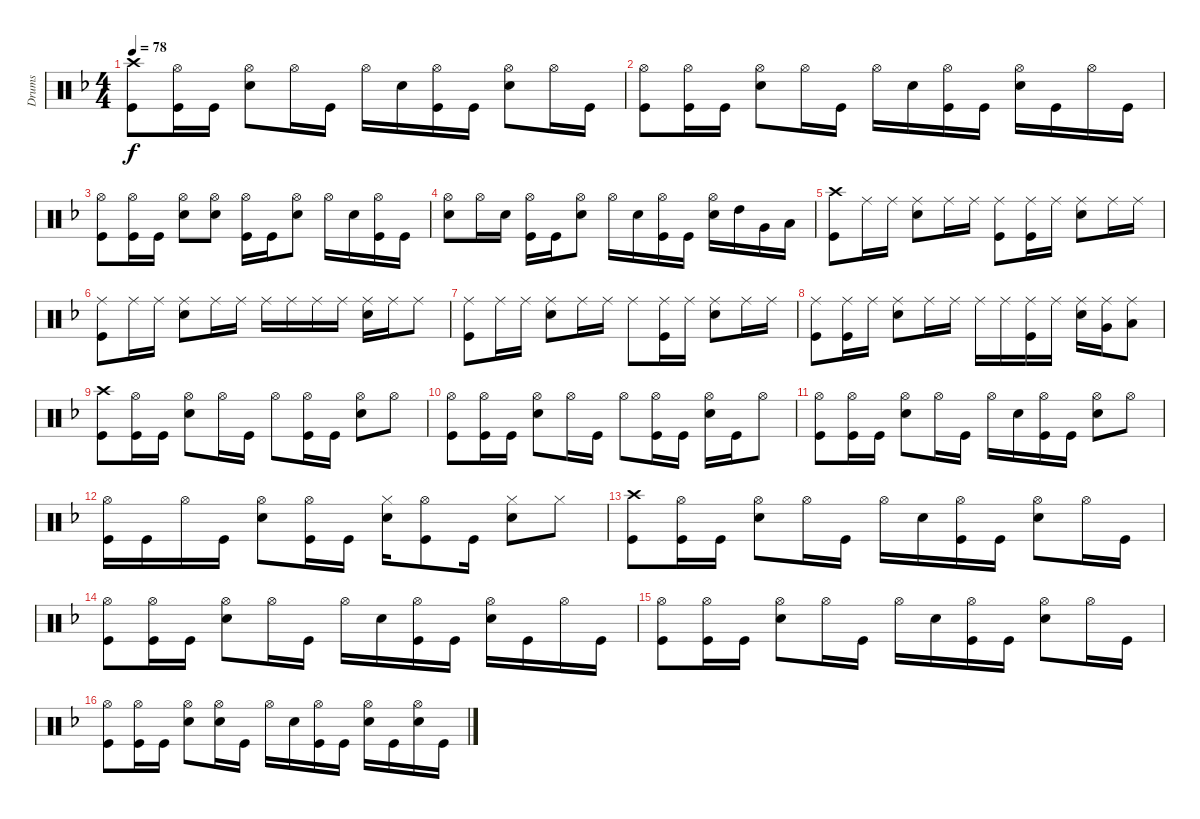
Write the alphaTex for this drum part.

\track ("Drums" "Drums") {instrument percussion}
\staff {score}
\articulation defaults
\ts (4 4)
\tempo 78
\clef neutral
\ks dminor
("Crash high (hit)" "Kick (hit)").8{dy f} ("Hi-Hat (open)" "Kick (hit)").16 "Kick (hit)".16 ("Hi-Hat (open)" "Snare (hit) 2").8 "Hi-Hat (open)".16 "Kick (hit)".16 "Hi-Hat (open)".16 "Snare (hit) 2".16 ("Hi-Hat (open)" "Kick (hit)").16 "Kick (hit)".16 ("Hi-Hat (open)" "Snare (hit) 2").8 "Hi-Hat (open)".16 "Kick (hit)".16 |
("Hi-Hat (open)" "Kick (hit)").8 ("Hi-Hat (open)" "Kick (hit)").16 "Kick (hit)".16 ("Hi-Hat (open)" "Snare (hit) 2").8 "Hi-Hat (open)".16 "Kick (hit)".16 "Hi-Hat (open)".16 "Snare (hit) 2".16 ("Hi-Hat (open)" "Kick (hit)").16 "Kick (hit)".16 ("Hi-Hat (open)" "Snare (hit) 2").16 "Kick (hit)".16 "Hi-Hat (open)".16 "Kick (hit)".16 |
("Hi-Hat (open)" "Kick (hit)").8 ("Hi-Hat (open)" "Kick (hit)").16 "Kick (hit)".16 ("Hi-Hat (open)" "Snare (hit) 2").8 ("Hi-Hat (open)" "Snare (hit) 2").8 ("Hi-Hat (open)" "Kick (hit)").16 "Kick (hit)".16 ("Hi-Hat (open)" "Snare (hit) 2").8 "Hi-Hat (open)".16 "Snare (hit) 2".16 ("Hi-Hat (open)" "Kick (hit)").16 "Kick (hit)".16 |
("Hi-Hat (open)" "Snare (hit) 2").8 "Hi-Hat (open)".16 "Snare (hit) 2".16 ("Hi-Hat (open)" "Kick (hit)").16 "Kick (hit)".16 ("Hi-Hat (open)" "Snare (hit) 2").8 "Hi-Hat (open)".16 "Snare (hit) 2".16 ("Hi-Hat (open)" "Kick (hit)").16 "Kick (hit)".16 ("Hi-Hat (open)" "Snare (hit) 2").16 "High Tom (hit)".16 "Very Low Tom (hit)".16 "Low Floor Tom (hit)".16 |
("Crash high (hit)" "Kick (hit)").8 "Ride (middle)".16 "Ride (middle)".16 ("Ride (middle)" "Snare (hit) 2").8 "Ride (middle)".16 "Ride (middle)".16 ("Ride (middle)" "Kick (hit)").8 ("Ride (middle)" "Kick (hit)").16 "Ride (middle)".16 ("Ride (middle)" "Snare (hit) 2").8 "Ride (middle)".16 "Ride (middle)".16 |
("Ride (middle)" "Kick (hit)").8 "Ride (middle)".16 "Ride (middle)".16 ("Ride (middle)" "Snare (hit) 2").8 "Ride (middle)".16 "Ride (middle)".16 "Ride (middle)".16 "Ride (middle)".16 "Ride (middle)".16 "Ride (middle)".16 ("Ride (middle)" "Snare (hit) 2").16 "Ride (middle)".16 "Ride (middle)".8 |
("Ride (middle)" "Kick (hit)").8 "Ride (middle)".16 "Ride (middle)".16 ("Ride (middle)" "Snare (hit) 2").8 "Ride (middle)".16 "Ride (middle)".16 "Ride (middle)".8 ("Ride (middle)" "Kick (hit)").16 "Ride (middle)".16 ("Ride (middle)" "Snare (hit) 2").8 "Ride (middle)".16 "Ride (middle)".16 |
("Ride (middle)" "Kick (hit)").8 ("Ride (middle)" "Kick (hit)").16 "Ride (middle)".16 ("Ride (middle)" "Snare (hit) 2").8 "Ride (middle)".16 "Ride (middle)".16 "Ride (middle)".16 "Ride (middle)".16 ("Ride (middle)" "Kick (hit)").16 "Ride (middle)".16 ("Ride (middle)" "Snare (hit) 2").16 ("Ride (middle)" "Very Low Tom (hit)").16 ("Ride (middle)" "Low Floor Tom (hit)").8 |
("Crash high (hit)" "Kick (hit)").8 ("Hi-Hat (open)" "Kick (hit)").16 "Kick (hit)".16 ("Hi-Hat (open)" "Snare (hit) 2").8 "Hi-Hat (open)".16 "Kick (hit)".16 "Hi-Hat (open)".8 ("Hi-Hat (open)" "Kick (hit)").16 "Kick (hit)".16 ("Hi-Hat (open)" "Snare (hit) 2").8 "Hi-Hat (open)".8 |
("Hi-Hat (open)" "Kick (hit)").8 ("Hi-Hat (open)" "Kick (hit)").16 "Kick (hit)".16 ("Hi-Hat (open)" "Snare (hit) 2").8 "Hi-Hat (open)".16 "Kick (hit)".16 "Hi-Hat (open)".8 ("Hi-Hat (open)" "Kick (hit)").16 "Kick (hit)".16 ("Hi-Hat (open)" "Snare (hit) 2").16 "Kick (hit)".16 "Hi-Hat (open)".8 |
("Hi-Hat (open)" "Kick (hit)").8 ("Hi-Hat (open)" "Kick (hit)").16 "Kick (hit)".16 ("Hi-Hat (open)" "Snare (hit) 2").8 "Hi-Hat (open)".16 "Kick (hit)".16 "Hi-Hat (open)".16 "Snare (hit) 2".16 ("Hi-Hat (open)" "Kick (hit)").16 "Kick (hit)".16 ("Hi-Hat (open)" "Snare (hit) 2").8 "Hi-Hat (open)".8 |
("Hi-Hat (open)" "Kick (hit)").16 "Kick (hit)".16 "Hi-Hat (open)".16 "Kick (hit)".16 ("Hi-Hat (open)" "Snare (hit) 2").8 ("Hi-Hat (open)" "Kick (hit)").16 "Kick (hit)".16 ("Hi-Hat (closed)" "Snare (hit) 2").16 ("Hi-Hat (open)" "Kick (hit)").8 "Kick (hit)".16 ("Hi-Hat (closed)" "Snare (hit) 2").8 "Hi-Hat (closed)".8 |
("Crash high (hit)" "Kick (hit)").8 ("Hi-Hat (open)" "Kick (hit)").16 "Kick (hit)".16 ("Hi-Hat (open)" "Snare (hit) 2").8 "Hi-Hat (open)".16 "Kick (hit)".16 "Hi-Hat (open)".16 "Snare (hit) 2".16 ("Hi-Hat (open)" "Kick (hit)").16 "Kick (hit)".16 ("Hi-Hat (open)" "Snare (hit) 2").8 "Hi-Hat (open)".16 "Kick (hit)".16 |
("Hi-Hat (open)" "Kick (hit)").8 ("Hi-Hat (open)" "Kick (hit)").16 "Kick (hit)".16 ("Hi-Hat (open)" "Snare (hit) 2").8 "Hi-Hat (open)".16 "Kick (hit)".16 "Hi-Hat (open)".16 "Snare (hit) 2".16 ("Hi-Hat (open)" "Kick (hit)").16 "Kick (hit)".16 ("Hi-Hat (open)" "Snare (hit) 2").16 "Kick (hit)".16 "Hi-Hat (open)".16 "Kick (hit)".16 |
("Hi-Hat (open)" "Kick (hit)").8 ("Hi-Hat (open)" "Kick (hit)").16 "Kick (hit)".16 ("Hi-Hat (open)" "Snare (hit) 2").8 "Hi-Hat (open)".16 "Kick (hit)".16 "Hi-Hat (open)".16 "Snare (hit) 2".16 ("Hi-Hat (open)" "Kick (hit)").16 "Kick (hit)".16 ("Hi-Hat (open)" "Snare (hit) 2").8 "Hi-Hat (open)".16 "Kick (hit)".16 |
("Hi-Hat (open)" "Kick (hit)").8 ("Hi-Hat (open)" "Kick (hit)").16 "Kick (hit)".16 ("Hi-Hat (open)" "Snare (hit) 2").8 ("Hi-Hat (open)" "Snare (hit) 2").16 "Kick (hit)".16 "Hi-Hat (open)".16 "Snare (hit) 2".16 ("Hi-Hat (open)" "Kick (hit)").16 "Kick (hit)".16 ("Hi-Hat (open)" "Snare (hit) 2").16 "Kick (hit)".16 ("Hi-Hat (open)" "Snare (hit) 2").16 "Kick (hit)".16
